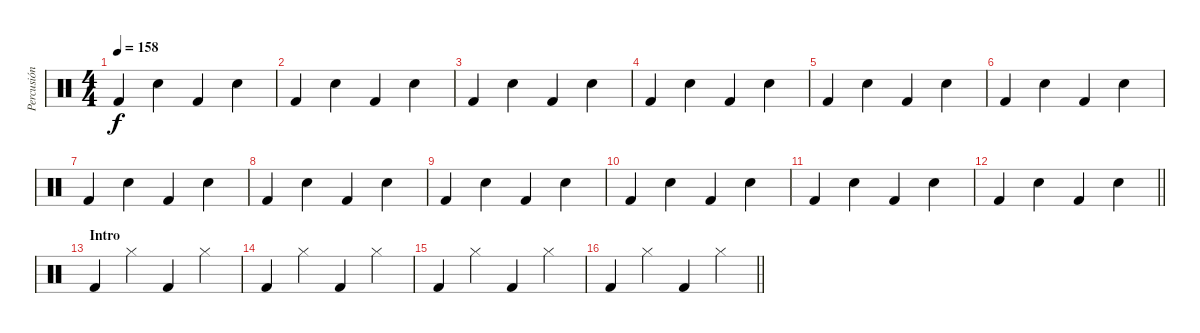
\track ("Percusión" "Percusión") {instrument percussion}
\staff {score}
\articulation defaults
\ts (4 4)
\tempo 158
\clef neutral
\ks c "Kick (hit) 2".4{dy f volume 16} "Electric Snare (hit)".4 "Kick (hit) 2".4 "Electric Snare (hit)".4
|
"Kick (hit) 2".4 "Electric Snare (hit)".4 "Kick (hit) 2".4 "Electric Snare (hit)".4 |
"Kick (hit) 2".4{volume 16} "Electric Snare (hit)".4 "Kick (hit) 2".4 "Electric Snare (hit)".4 |
"Kick (hit) 2".4 "Electric Snare (hit)".4 "Kick (hit) 2".4 "Electric Snare (hit)".4 |
"Kick (hit) 2".4{volume 16} "Electric Snare (hit)".4 "Kick (hit) 2".4 "Electric Snare (hit)".4 |
"Kick (hit) 2".4 "Electric Snare (hit)".4 "Kick (hit) 2".4 "Electric Snare (hit)".4 |
"Kick (hit) 2".4{volume 16} "Electric Snare (hit)".4 "Kick (hit) 2".4 "Electric Snare (hit)".4 |
"Kick (hit) 2".4 "Electric Snare (hit)".4 "Kick (hit) 2".4 "Electric Snare (hit)".4 |
"Kick (hit) 2".4{volume 16} "Electric Snare (hit)".4 "Kick (hit) 2".4 "Electric Snare (hit)".4 |
"Kick (hit) 2".4 "Electric Snare (hit)".4 "Kick (hit) 2".4 "Electric Snare (hit)".4 |
"Kick (hit) 2".4{volume 16} "Electric Snare (hit)".4 "Kick (hit) 2".4 "Electric Snare (hit)".4 |
\barLineRight lightlight "Kick (hit) 2".4{volume 16} "Electric Snare (hit)".4 "Kick (hit) 2".4 "Electric Snare (hit)".4
|
\section ("" "Intro")
"Kick (hit) 2".4{volume 6} "Hi-Hat (closed)".4 "Kick (hit) 2".4 "Hi-Hat (closed)".4 |
"Kick (hit) 2".4 "Hi-Hat (closed)".4 "Kick (hit) 2".4 "Hi-Hat (closed)".4 |
"Kick (hit) 2".4 "Hi-Hat (closed)".4 "Kick (hit) 2".4 "Hi-Hat (closed)".4 |
\barLineRight lightlight "Kick (hit) 2".4 "Hi-Hat (closed)".4 "Kick (hit) 2".4 "Hi-Hat (closed)".4
